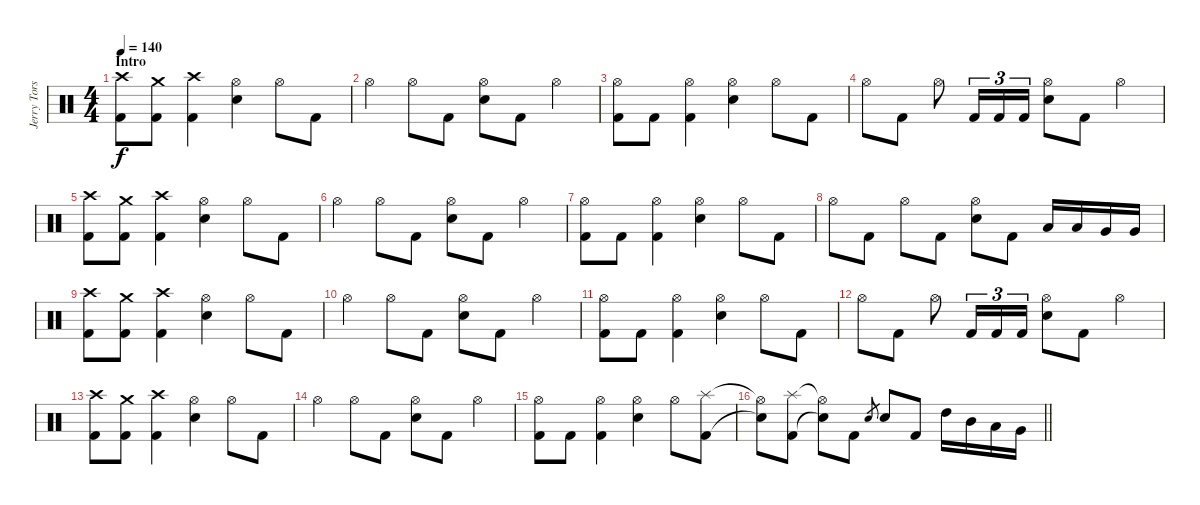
\track ("Jerry Torstensson" "Jerry Tors") {instrument percussion}
\staff {score}
\articulation defaults
\ts (4 4)
\section ("" "Intro")
\tempo 140
\clef neutral
\ks c
("Crash high (hit)" "Kick (hit) 2").8{dy f} ("Crash medium (hit)" "Kick (hit) 2").8 ("Crash high (hit)" "Kick (hit) 2").4 ("Hi-Hat (open)" "Snare (hit) 2").4 "Hi-Hat (open)".8 "Kick (hit) 2".8 |
"Hi-Hat (open)".4 "Hi-Hat (open)".8 "Kick (hit) 2".8 ("Hi-Hat (open)" "Snare (hit) 2").8 "Kick (hit) 2".8 "Hi-Hat (open)".4 |
("Hi-Hat (open)" "Kick (hit) 2").8 "Kick (hit) 2".8 ("Hi-Hat (open)" "Kick (hit) 2").4 ("Hi-Hat (open)" "Snare (hit) 2").4 "Hi-Hat (open)".8 "Kick (hit) 2".8 |
"Hi-Hat (open)".8 "Kick (hit) 2".8 "Hi-Hat (open)".8 "Kick (hit) 2".16{tu (3 2)} "Kick (hit) 2".16{tu (3 2)} "Kick (hit) 2".16{tu (3 2)} ("Hi-Hat (open)" "Snare (hit) 2").8 "Kick (hit) 2".8 "Hi-Hat (open)".4 |
("Crash high (hit)" "Kick (hit) 2").8 ("Crash medium (hit)" "Kick (hit) 2").8 ("Crash high (hit)" "Kick (hit) 2").4 ("Hi-Hat (open)" "Snare (hit) 2").4 "Hi-Hat (open)".8 "Kick (hit) 2".8 |
"Hi-Hat (open)".4 "Hi-Hat (open)".8 "Kick (hit) 2".8 ("Hi-Hat (open)" "Snare (hit) 2").8 "Kick (hit) 2".8 "Hi-Hat (open)".4 |
("Hi-Hat (open)" "Kick (hit) 2").8 "Kick (hit) 2".8 ("Hi-Hat (open)" "Kick (hit) 2").4 ("Hi-Hat (open)" "Snare (hit) 2").4 "Hi-Hat (open)".8 "Kick (hit) 2".8 |
"Hi-Hat (open)".8 "Kick (hit) 2".8 "Hi-Hat (open)".8 "Kick (hit) 2".8 ("Hi-Hat (open)" "Snare (hit) 2").8 "Kick (hit) 2".8 "Low Tom (hit)".16 "Low Tom (hit)".16 "Very Low Tom (hit)".16 "Very Low Tom (hit)".16 |
("Crash high (hit)" "Kick (hit) 2").8 ("Crash medium (hit)" "Kick (hit) 2").8 ("Crash high (hit)" "Kick (hit) 2").4 ("Hi-Hat (open)" "Snare (hit) 2").4 "Hi-Hat (open)".8 "Kick (hit) 2".8 |
"Hi-Hat (open)".4 "Hi-Hat (open)".8 "Kick (hit) 2".8 ("Hi-Hat (open)" "Snare (hit) 2").8 "Kick (hit) 2".8 "Hi-Hat (open)".4 |
("Hi-Hat (open)" "Kick (hit) 2").8 "Kick (hit) 2".8 ("Hi-Hat (open)" "Kick (hit) 2").4 ("Hi-Hat (open)" "Snare (hit) 2").4 "Hi-Hat (open)".8 "Kick (hit) 2".8 |
"Hi-Hat (open)".8 "Kick (hit) 2".8 "Hi-Hat (open)".8 "Kick (hit) 2".16{tu (3 2)} "Kick (hit) 2".16{tu (3 2)} "Kick (hit) 2".16{tu (3 2)} ("Hi-Hat (open)" "Snare (hit) 2").8 "Kick (hit) 2".8 "Hi-Hat (open)".4 |
("Crash high (hit)" "Kick (hit) 2").8 ("Crash medium (hit)" "Kick (hit) 2").8 ("Crash high (hit)" "Kick (hit) 2").4 ("Hi-Hat (open)" "Snare (hit) 2").4 "Hi-Hat (open)".8 "Kick (hit) 2".8 |
"Hi-Hat (open)".4 "Hi-Hat (open)".8 "Kick (hit) 2".8 ("Hi-Hat (open)" "Snare (hit) 2").8 "Kick (hit) 2".8 "Hi-Hat (open)".4 |
("Hi-Hat (open)" "Kick (hit) 2").8 "Kick (hit) 2".8 ("Hi-Hat (open)" "Kick (hit) 2").4 ("Hi-Hat (open)" "Snare (hit) 2").4 "Hi-Hat (open)".8 ("Splash (hit)" "Kick (hit) 2").8 |
\barLineRight lightlight
("Hi-Hat (open)"{t} "Snare (hit)"{t}).8 ("Splash (hit)" "Kick (hit) 2").8 ("Hi-Hat (open)"{t} "Snare (hit)"{t}).8 "Kick (hit) 2".8 "Snare (hit) 2".8{gr} "Snare (hit) 2".8 "Kick (hit) 2".8 "High Tom (hit)".16 "Mid Tom (hit)".16 "Low Tom (hit)".16 "Very Low Tom (hit)".16
